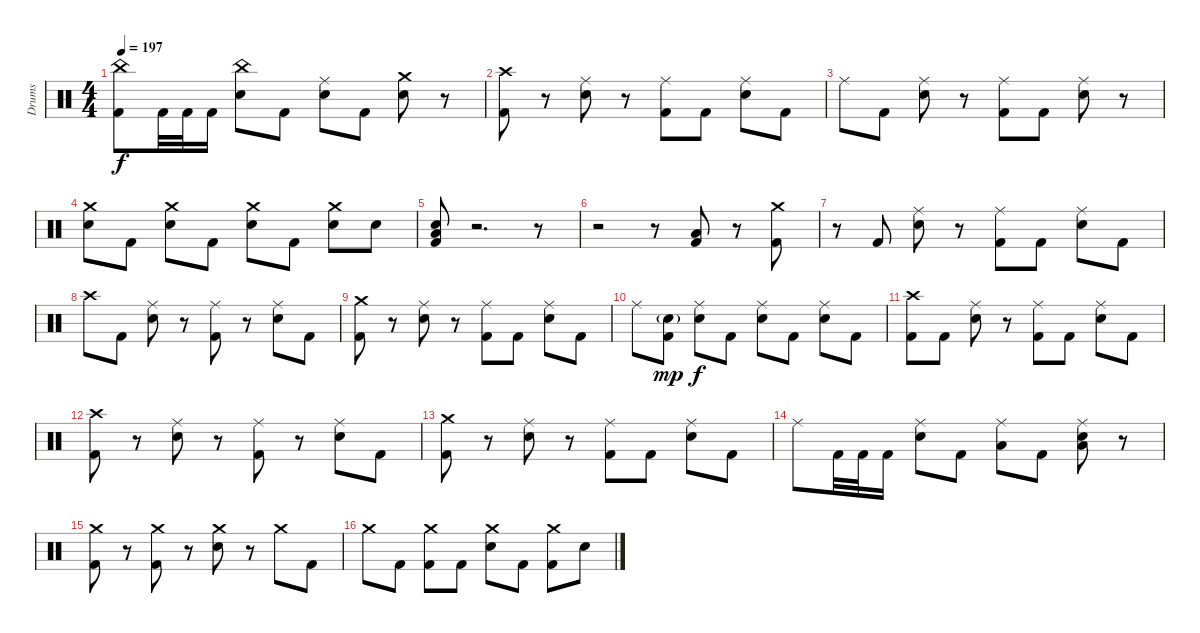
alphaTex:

\track ("Drums" "Drums") {instrument percussion}
\staff {score}
\articulation defaults
\ts (4 4)
\tempo 197
\clef neutral
\ks c
("China (hit)" "Kick (hit) 2").8{dy f} "Kick (hit) 2".32 "Kick (hit) 2".32 "Kick (hit) 2".16 ("China (hit)" "Electric Snare (hit)").8 "Kick (hit) 2".8 ("Ride (middle)" "Electric Snare (hit)").8 "Kick (hit) 2".8 ("Crash medium (hit)" "Electric Snare (hit)").8 r.8 |
("Crash high (hit)" "Kick (hit) 2").8 r.8 ("Ride (middle)" "Electric Snare (hit)").8 r.8 ("Ride (middle)" "Kick (hit) 2").8 "Kick (hit) 2".8 ("Ride (middle)" "Electric Snare (hit)").8 "Kick (hit) 2".8 |
"Ride (middle)".8 "Kick (hit) 2".8 ("Ride (middle)" "Electric Snare (hit)").8 r.8 ("Ride (middle)" "Kick (hit) 2").8 "Kick (hit) 2".8 ("Ride (middle)" "Electric Snare (hit)").8 r.8 |
("Crash medium (hit)" "Electric Snare (hit)").8 "Kick (hit) 2".8 ("Crash medium (hit)" "Electric Snare (hit)").8 "Kick (hit) 2".8 ("Crash medium (hit)" "Electric Snare (hit)").8 "Kick (hit) 2".8 ("Crash medium (hit)" "Electric Snare (hit)").8 "Electric Snare (hit)".8 |
("Electric Snare (hit)" "Low Floor Tom (hit)" "Kick (hit) 2").8 r.2{d} r.8 |
r.2 r.8 ("Low Floor Tom (hit)" "Kick (hit) 2").8 r.8 ("Crash medium (hit)" "Kick (hit) 2").8 |
r.8 "Kick (hit) 2".8 ("Ride (middle)" "Electric Snare (hit)").8 r.8 ("Ride (middle)" "Kick (hit) 2").8 "Kick (hit) 2".8 ("Ride (middle)" "Electric Snare (hit)").8 "Kick (hit) 2".8 |
"Crash high (hit)".8 "Kick (hit) 2".8 ("Ride (middle)" "Electric Snare (hit)").8 r.8 ("Ride (middle)" "Kick (hit) 2").8 r.8 ("Ride (middle)" "Electric Snare (hit)").8 "Kick (hit) 2".8 |
("Crash medium (hit)" "Kick (hit) 2").8 r.8 ("Ride (middle)" "Electric Snare (hit)").8 r.8 ("Ride (middle)" "Kick (hit) 2").8 "Kick (hit) 2".8 ("Ride (middle)" "Electric Snare (hit)").8 "Kick (hit) 2".8 |
"Ride (middle)".8 ("Electric Snare (hit)"{g} "Kick (hit) 2").8{dy mp} ("Ride (middle)" "Electric Snare (hit)").8{dy f} "Kick (hit) 2".8 ("Ride (middle)" "Electric Snare (hit)").8 "Kick (hit) 2".8 ("Ride (middle)" "Electric Snare (hit)").8 "Kick (hit) 2".8 |
("Crash high (hit)" "Kick (hit) 2").8 "Kick (hit) 2".8 ("Ride (middle)" "Electric Snare (hit)").8 r.8 ("Ride (middle)" "Kick (hit) 2").8 "Kick (hit) 2".8 ("Ride (middle)" "Electric Snare (hit)").8 "Kick (hit) 2".8 |
("Crash high (hit)" "Kick (hit) 2").8 r.8 ("Ride (middle)" "Electric Snare (hit)").8 r.8 ("Ride (middle)" "Kick (hit) 2").8 r.8 ("Ride (middle)" "Electric Snare (hit)").8 "Kick (hit) 2".8 |
("Crash medium (hit)" "Kick (hit) 2").8 r.8 ("Ride (middle)" "Electric Snare (hit)").8 r.8 ("Ride (middle)" "Kick (hit) 2").8 "Kick (hit) 2".8 ("Ride (middle)" "Electric Snare (hit)").8 "Kick (hit) 2".8 |
"Ride (middle)".8 "Kick (hit) 2".32 "Kick (hit) 2".32 "Kick (hit) 2".16 ("Ride (middle)" "Electric Snare (hit)").8 "Kick (hit) 2".8 ("Ride (middle)" "Low Tom (hit)").8 "Kick (hit) 2".8 ("Ride (middle)" "Electric Snare (hit)" "Low Floor Tom (hit)").8 r.8 |
("Crash medium (hit)" "Kick (hit) 2").8 r.8 ("Crash medium (hit)" "Kick (hit) 2").8 r.8 ("Crash medium (hit)" "Electric Snare (hit)").8 r.8 "Crash medium (hit)".8 "Kick (hit) 2".8 |
"Crash medium (hit)".8 "Kick (hit) 2".8 ("Crash medium (hit)" "Kick (hit) 2").8 "Kick (hit) 2".8 ("Crash medium (hit)" "Electric Snare (hit)").8 "Kick (hit) 2".8 ("Crash medium (hit)" "Kick (hit) 2").8 "Electric Snare (hit)".8
